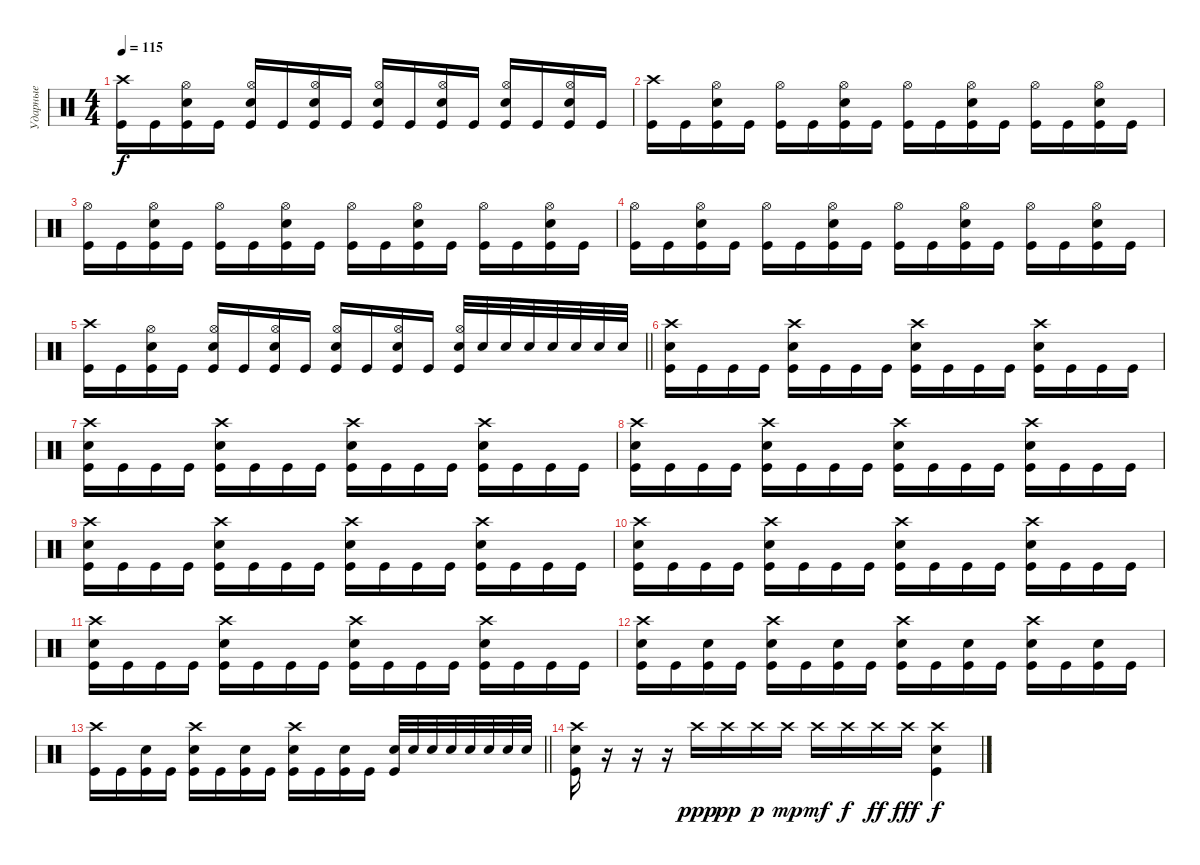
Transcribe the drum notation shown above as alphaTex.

\track ("Ударные" "Ударные") {instrument percussion}
\staff {score}
\articulation defaults
\ts (4 4)
\tempo 115
\clef neutral
\ks c
("Crash high (hit)" "Kick (hit)").16{dy f} "Kick (hit)".16 ("Hi-Hat (open)" "Snare (hit) 2" "Kick (hit)").16 "Kick (hit)".16 ("Hi-Hat (open)" "Snare (hit) 2" "Kick (hit)").16 "Kick (hit)".16 ("Hi-Hat (open)" "Snare (hit) 2" "Kick (hit)").16 "Kick (hit)".16 ("Hi-Hat (open)" "Snare (hit) 2" "Kick (hit)").16 "Kick (hit)".16 ("Hi-Hat (open)" "Snare (hit) 2" "Kick (hit)").16 "Kick (hit)".16 ("Hi-Hat (open)" "Snare (hit) 2" "Kick (hit)").16 "Kick (hit)".16 ("Hi-Hat (open)" "Snare (hit) 2" "Kick (hit)").16 "Kick (hit)".16 |
("Crash high (hit)" "Kick (hit)").16 "Kick (hit)".16 ("Hi-Hat (open)" "Snare (hit) 2" "Kick (hit)").16 "Kick (hit)".16 ("Hi-Hat (open)" "Kick (hit)").16 "Kick (hit)".16 ("Hi-Hat (open)" "Snare (hit) 2" "Kick (hit)").16 "Kick (hit)".16 ("Hi-Hat (open)" "Kick (hit)").16 "Kick (hit)".16 ("Hi-Hat (open)" "Snare (hit) 2" "Kick (hit)").16 "Kick (hit)".16 ("Hi-Hat (open)" "Kick (hit)").16 "Kick (hit)".16 ("Hi-Hat (open)" "Snare (hit) 2" "Kick (hit)").16 "Kick (hit)".16 |
("Hi-Hat (open)" "Kick (hit)").16 "Kick (hit)".16 ("Hi-Hat (open)" "Snare (hit) 2" "Kick (hit)").16 "Kick (hit)".16 ("Hi-Hat (open)" "Kick (hit)").16 "Kick (hit)".16 ("Hi-Hat (open)" "Snare (hit) 2" "Kick (hit)").16 "Kick (hit)".16 ("Hi-Hat (open)" "Kick (hit)").16 "Kick (hit)".16 ("Hi-Hat (open)" "Snare (hit) 2" "Kick (hit)").16 "Kick (hit)".16 ("Hi-Hat (open)" "Kick (hit)").16 "Kick (hit)".16 ("Hi-Hat (open)" "Snare (hit) 2" "Kick (hit)").16 "Kick (hit)".16 |
("Hi-Hat (open)" "Kick (hit)").16 "Kick (hit)".16 ("Hi-Hat (open)" "Snare (hit) 2" "Kick (hit)").16 "Kick (hit)".16 ("Hi-Hat (open)" "Kick (hit)").16 "Kick (hit)".16 ("Hi-Hat (open)" "Snare (hit) 2" "Kick (hit)").16 "Kick (hit)".16 ("Hi-Hat (open)" "Kick (hit)").16 "Kick (hit)".16 ("Hi-Hat (open)" "Snare (hit) 2" "Kick (hit)").16 "Kick (hit)".16 ("Hi-Hat (open)" "Kick (hit)").16 "Kick (hit)".16 ("Hi-Hat (open)" "Snare (hit) 2" "Kick (hit)").16 "Kick (hit)".16 |
\barLineRight lightlight
("Crash high (hit)" "Kick (hit)").16 "Kick (hit)".16 ("Hi-Hat (open)" "Snare (hit) 2" "Kick (hit)").16 "Kick (hit)".16 ("Hi-Hat (open)" "Snare (hit) 2" "Kick (hit)").16 "Kick (hit)".16 ("Hi-Hat (open)" "Snare (hit) 2" "Kick (hit)").16 "Kick (hit)".16 ("Hi-Hat (open)" "Snare (hit) 2" "Kick (hit)").16 "Kick (hit)".16 ("Hi-Hat (open)" "Snare (hit) 2" "Kick (hit)").16 "Kick (hit)".16 ("Hi-Hat (open)" "Snare (hit) 2" "Kick (hit)").32 "Snare (hit) 2".32 "Snare (hit) 2".32 "Snare (hit) 2".32 "Snare (hit) 2".32 "Snare (hit) 2".32 "Snare (hit) 2".32 "Snare (hit) 2".32 |
("Crash high (hit)" "Snare (hit) 2" "Kick (hit)").16 "Kick (hit)".16 "Kick (hit)".16 "Kick (hit)".16 ("Crash high (hit)" "Snare (hit) 2" "Kick (hit)").16 "Kick (hit)".16 "Kick (hit)".16 "Kick (hit)".16 ("Crash high (hit)" "Snare (hit) 2" "Kick (hit)").16 "Kick (hit)".16 "Kick (hit)".16 "Kick (hit)".16 ("Crash high (hit)" "Snare (hit) 2" "Kick (hit)").16 "Kick (hit)".16 "Kick (hit)".16 "Kick (hit)".16 |
("Crash high (hit)" "Snare (hit) 2" "Kick (hit)").16 "Kick (hit)".16 "Kick (hit)".16 "Kick (hit)".16 ("Crash high (hit)" "Snare (hit) 2" "Kick (hit)").16 "Kick (hit)".16 "Kick (hit)".16 "Kick (hit)".16 ("Crash high (hit)" "Snare (hit) 2" "Kick (hit)").16 "Kick (hit)".16 "Kick (hit)".16 "Kick (hit)".16 ("Crash high (hit)" "Snare (hit) 2" "Kick (hit)").16 "Kick (hit)".16 "Kick (hit)".16 "Kick (hit)".16 |
("Crash high (hit)" "Snare (hit) 2" "Kick (hit)").16 "Kick (hit)".16 "Kick (hit)".16 "Kick (hit)".16 ("Crash high (hit)" "Snare (hit) 2" "Kick (hit)").16 "Kick (hit)".16 "Kick (hit)".16 "Kick (hit)".16 ("Crash high (hit)" "Snare (hit) 2" "Kick (hit)").16 "Kick (hit)".16 "Kick (hit)".16 "Kick (hit)".16 ("Crash high (hit)" "Snare (hit) 2" "Kick (hit)").16 "Kick (hit)".16 "Kick (hit)".16 "Kick (hit)".16 |
("Crash high (hit)" "Snare (hit) 2" "Kick (hit)").16 "Kick (hit)".16 "Kick (hit)".16 "Kick (hit)".16 ("Crash high (hit)" "Snare (hit) 2" "Kick (hit)").16 "Kick (hit)".16 "Kick (hit)".16 "Kick (hit)".16 ("Crash high (hit)" "Snare (hit) 2" "Kick (hit)").16 "Kick (hit)".16 "Kick (hit)".16 "Kick (hit)".16 ("Crash high (hit)" "Snare (hit) 2" "Kick (hit)").16 "Kick (hit)".16 "Kick (hit)".16 "Kick (hit)".16 |
("Crash high (hit)" "Snare (hit) 2" "Kick (hit)").16 "Kick (hit)".16 "Kick (hit)".16 "Kick (hit)".16 ("Crash high (hit)" "Snare (hit) 2" "Kick (hit)").16 "Kick (hit)".16 "Kick (hit)".16 "Kick (hit)".16 ("Crash high (hit)" "Snare (hit) 2" "Kick (hit)").16 "Kick (hit)".16 "Kick (hit)".16 "Kick (hit)".16 ("Crash high (hit)" "Snare (hit) 2" "Kick (hit)").16 "Kick (hit)".16 "Kick (hit)".16 "Kick (hit)".16 |
("Crash high (hit)" "Snare (hit) 2" "Kick (hit)").16 "Kick (hit)".16 "Kick (hit)".16 "Kick (hit)".16 ("Crash high (hit)" "Snare (hit) 2" "Kick (hit)").16 "Kick (hit)".16 "Kick (hit)".16 "Kick (hit)".16 ("Crash high (hit)" "Snare (hit) 2" "Kick (hit)").16 "Kick (hit)".16 "Kick (hit)".16 "Kick (hit)".16 ("Crash high (hit)" "Snare (hit) 2" "Kick (hit)").16 "Kick (hit)".16 "Kick (hit)".16 "Kick (hit)".16 |
("Crash high (hit)" "Snare (hit) 2" "Kick (hit)").16 "Kick (hit)".16 ("Snare (hit) 2" "Kick (hit)").16 "Kick (hit)".16 ("Crash high (hit)" "Snare (hit) 2" "Kick (hit)").16 "Kick (hit)".16 ("Snare (hit) 2" "Kick (hit)").16 "Kick (hit)".16 ("Crash high (hit)" "Snare (hit) 2" "Kick (hit)").16 "Kick (hit)".16 ("Snare (hit) 2" "Kick (hit)").16 "Kick (hit)".16 ("Crash high (hit)" "Snare (hit) 2" "Kick (hit)").16 "Kick (hit)".16 ("Snare (hit) 2" "Kick (hit)").16 "Kick (hit)".16 |
\barLineRight lightlight
("Crash high (hit)" "Kick (hit)").16 "Kick (hit)".16 ("Snare (hit) 2" "Kick (hit)").16 "Kick (hit)".16 ("Crash high (hit)" "Snare (hit) 2" "Kick (hit)").16 "Kick (hit)".16 ("Snare (hit) 2" "Kick (hit)").16 "Kick (hit)".16 ("Crash high (hit)" "Snare (hit) 2" "Kick (hit)").16 "Kick (hit)".16 ("Snare (hit) 2" "Kick (hit)").16 "Kick (hit)".16 ("Snare (hit) 2" "Kick (hit)").32 "Snare (hit) 2".32 "Snare (hit) 2".32 "Snare (hit) 2".32 "Snare (hit) 2".32 "Snare (hit) 2".32 "Snare (hit) 2".32 "Snare (hit) 2".32 |
("Crash high (hit)" "Snare (hit) 2" "Kick (hit)").16 r.16 r.16 r.16 "Crash high (hit)".16{dy ppp} "Crash high (hit)".16{dy pp} "Crash high (hit)".16{dy p} "Crash high (hit)".16{dy mp} "Crash high (hit)".16{dy mf} "Crash high (hit)".16{dy f} "Crash high (hit)".16{dy ff} "Crash high (hit)".16{dy fff} ("Crash high (hit)" "Snare (hit) 2" "Kick (hit)").4{dy f}
